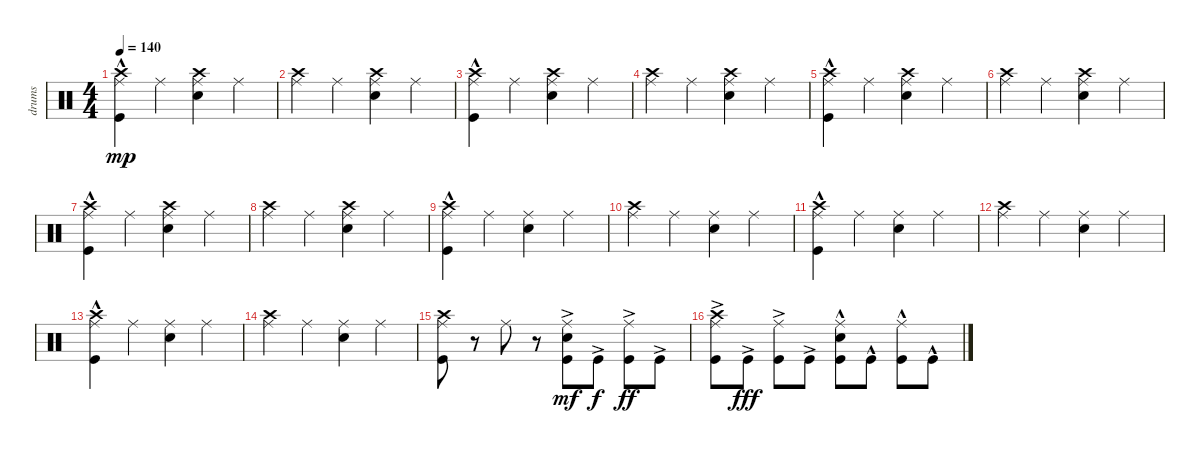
\track ("drums" "drums") {instrument percussion}
\staff {score}
\articulation defaults
\ts (4 4)
\tempo 140
\clef neutral
\ks c
("Crash high (hit)"{hac} "Ride (middle)" "Kick (hit)").4{dy mp} "Ride (middle)".4 ("Crash high (hit)" "Ride (middle)" "Snare (hit) 2").4 "Ride (middle)".4 |
("Crash high (hit)" "Ride (middle)").4 "Ride (middle)".4 ("Crash high (hit)" "Ride (middle)" "Snare (hit) 2").4 "Ride (middle)".4 |
("Crash high (hit)"{hac} "Ride (middle)" "Kick (hit)").4 "Ride (middle)".4 ("Crash high (hit)" "Ride (middle)" "Snare (hit) 2").4 "Ride (middle)".4 |
("Crash high (hit)" "Ride (middle)").4 "Ride (middle)".4 ("Crash high (hit)" "Ride (middle)" "Snare (hit) 2").4 "Ride (middle)".4 |
("Crash high (hit)"{hac} "Ride (middle)" "Kick (hit)").4 "Ride (middle)".4 ("Crash high (hit)" "Ride (middle)" "Snare (hit) 2").4 "Ride (middle)".4 |
("Crash high (hit)" "Ride (middle)").4 "Ride (middle)".4 ("Crash high (hit)" "Ride (middle)" "Snare (hit) 2").4 "Ride (middle)".4 |
("Crash high (hit)"{hac} "Ride (middle)" "Kick (hit)").4 "Ride (middle)".4 ("Crash high (hit)" "Ride (middle)" "Snare (hit) 2").4 "Ride (middle)".4 |
("Crash high (hit)" "Ride (middle)").4 "Ride (middle)".4 ("Crash high (hit)" "Ride (middle)" "Snare (hit) 2").4 "Ride (middle)".4 |
("Crash high (hit)"{hac} "Ride (middle)" "Kick (hit)").4 "Ride (middle)".4 ("Ride (middle)" "Snare (hit) 2").4 "Ride (middle)".4 |
("Crash high (hit)" "Ride (middle)").4 "Ride (middle)".4 ("Ride (middle)" "Snare (hit) 2").4 "Ride (middle)".4 |
("Crash high (hit)"{hac} "Ride (middle)" "Kick (hit)").4 "Ride (middle)".4 ("Ride (middle)" "Snare (hit) 2").4 "Ride (middle)".4 |
("Crash high (hit)" "Ride (middle)").4 "Ride (middle)".4 ("Ride (middle)" "Snare (hit) 2").4 "Ride (middle)".4 |
("Crash high (hit)"{hac} "Ride (middle)" "Kick (hit)").4 "Ride (middle)".4 ("Ride (middle)" "Snare (hit) 2").4 "Ride (middle)".4 |
("Crash high (hit)" "Ride (middle)").4 "Ride (middle)".4 ("Ride (middle)" "Snare (hit) 2").4 "Ride (middle)".4 |
("Crash high (hit)" "Ride (middle)" "Kick (hit)").8 r.8 "Ride (middle)".8 r.8 ("Ride (middle)" "Snare (hit) 2" "Kick (hit)"{ac}).8{dy mf} "Kick (hit)"{ac}.8{dy f} ("Ride (middle)" "Kick (hit)"{ac}).8{dy ff} "Kick (hit)"{ac}.8 |
("Crash high (hit)" "Ride (middle)" "Kick (hit)"{ac}).8 "Kick (hit)"{ac}.8{dy fff} ("Ride (middle)" "Kick (hit)"{ac}).8 "Kick (hit)"{ac}.8 ("Ride (middle)" "Snare (hit) 2" "Kick (hit)"{hac}).8 "Kick (hit)"{hac}.8 ("Ride (middle)" "Kick (hit)"{hac}).8 "Kick (hit)"{hac}.8
